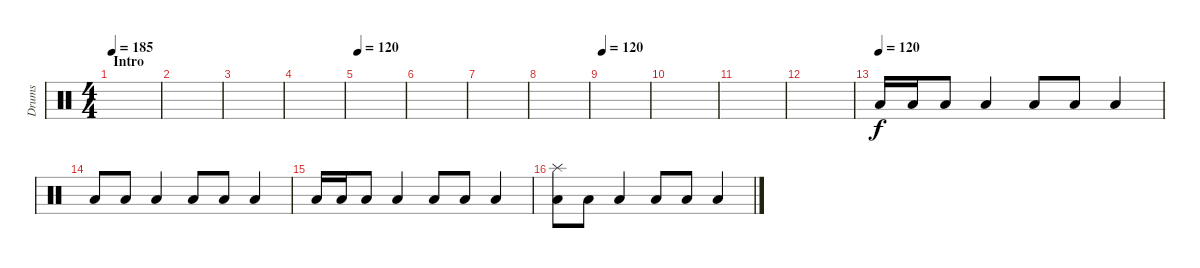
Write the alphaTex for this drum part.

\track ("Drums" "Drums") {instrument percussion}
\staff {score}
\articulation defaults
\ts (4 4)
\section ("" "Intro")
\tempo 185
\tempo 120
\tempo 185
\clef neutral
\ks c
|
|
|
|
\tempo 120
|
|
|
|
\tempo 120
|
|
|
|
\tempo (120)
"Low Floor Tom (hit)".16 "Low Floor Tom (hit)".16 "Low Floor Tom (hit)".8 "Low Floor Tom (hit)".4 "Low Floor Tom (hit)".8 "Low Floor Tom (hit)".8 "Low Floor Tom (hit)".4 |
"Low Floor Tom (hit)".8 "Low Floor Tom (hit)".8 "Low Floor Tom (hit)".4 "Low Floor Tom (hit)".8 "Low Floor Tom (hit)".8 "Low Floor Tom (hit)".4 |
"Low Floor Tom (hit)".16 "Low Floor Tom (hit)".16 "Low Floor Tom (hit)".8 "Low Floor Tom (hit)".4 "Low Floor Tom (hit)".8 "Low Floor Tom (hit)".8 "Low Floor Tom (hit)".4 |
("Low Floor Tom (hit)" "Splash (hit)").8 "Low Floor Tom (hit)".8 "Low Floor Tom (hit)".4 "Low Floor Tom (hit)".8 "Low Floor Tom (hit)".8 "Low Floor Tom (hit)".4
